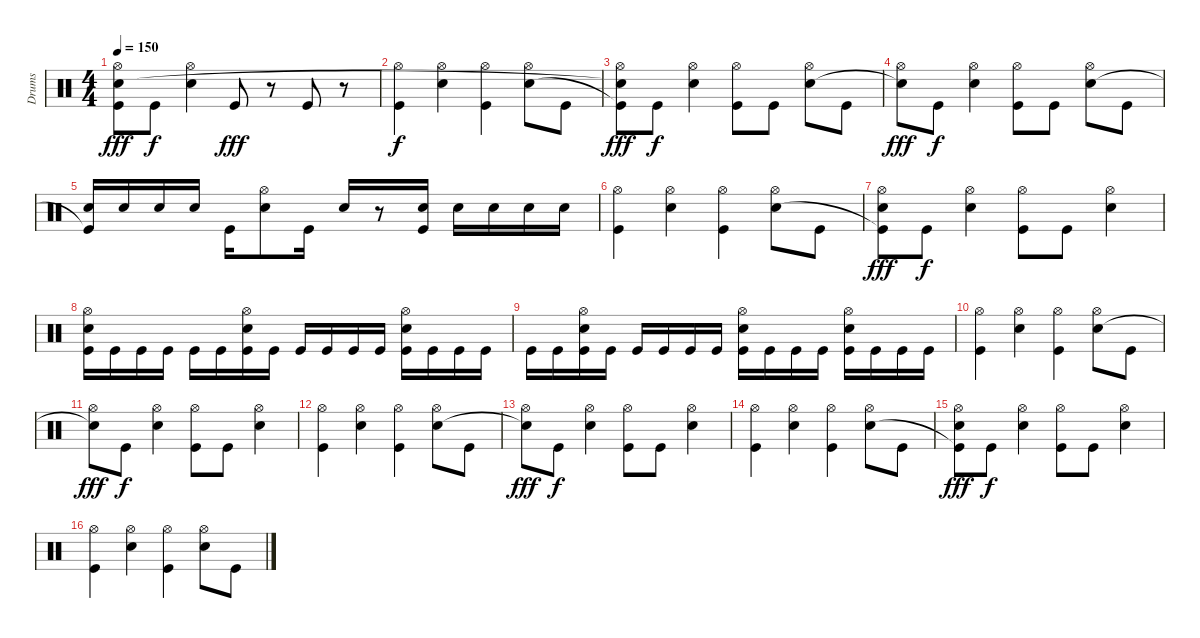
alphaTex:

\track ("Drums" "Drums") {instrument percussion}
\staff {score}
\articulation defaults
\ts (4 4)
\tempo 150
\clef neutral
\ks c
("Hi-Hat (open)" "Kick (hit)"{t} "Snare (hit)"{t}).8{dy fff} "Kick (hit)".8{dy f} ("Hi-Hat (open)" "Snare (hit) 2").4 "Kick (hit)".8{dy fff} r.8 "Kick (hit)".8 r.8 |
("Hi-Hat (open)" "Kick (hit)").4{dy f} ("Hi-Hat (open)" "Snare (hit) 2").4 ("Hi-Hat (open)" "Kick (hit)").4 ("Hi-Hat (open)" "Snare (hit) 2").8 "Kick (hit)".8 |
("Hi-Hat (open)" "Kick (hit)"{t} "Snare (hit)"{t}).8{dy fff} "Kick (hit)".8{dy f} ("Hi-Hat (open)" "Snare (hit) 2").4 ("Hi-Hat (open)" "Kick (hit)").8 "Kick (hit)".8 ("Hi-Hat (open)" "Snare (hit) 2").8 "Kick (hit)".8 |
("Hi-Hat (open)" "Snare (hit)"{t}).8{dy fff} "Kick (hit)".8{dy f} ("Hi-Hat (open)" "Snare (hit) 2").4 ("Hi-Hat (open)" "Kick (hit)").8 "Kick (hit)".8 ("Hi-Hat (open)" "Snare (hit) 2").8 "Kick (hit)".8 |
("Snare (hit) 2" "Kick (hit)"{t}).16 "Snare (hit) 2".16 "Snare (hit) 2".16 "Snare (hit) 2".16 "Kick (hit)".16 ("Hi-Hat (open)" "Snare (hit) 2").8 "Kick (hit)".16 "Snare (hit) 2".16 r.8 ("Snare (hit) 2" "Kick (hit)").16 "Snare (hit) 2".16 "Snare (hit) 2".16 "Snare (hit) 2".16 "Snare (hit) 2".16 |
("Hi-Hat (open)" "Kick (hit)").4 ("Hi-Hat (open)" "Snare (hit) 2").4 ("Hi-Hat (open)" "Kick (hit)").4 ("Hi-Hat (open)" "Snare (hit) 2").8 "Kick (hit)".8 |
("Hi-Hat (open)" "Kick (hit)"{t} "Snare (hit)").8{dy fff} "Kick (hit)".8{dy f} ("Hi-Hat (open)" "Snare (hit) 2").4 ("Hi-Hat (open)" "Kick (hit)").8 "Kick (hit)".8 ("Hi-Hat (open)" "Snare (hit) 2").4 |
("Hi-Hat (open)" "Snare (hit) 2" "Kick (hit)").16 "Kick (hit)".16 "Kick (hit)".16 "Kick (hit)".16 "Kick (hit)".16 "Kick (hit)".16 ("Hi-Hat (open)" "Snare (hit) 2" "Kick (hit)").16 "Kick (hit)".16 "Kick (hit)".16 "Kick (hit)".16 "Kick (hit)".16 "Kick (hit)".16 ("Hi-Hat (open)" "Snare (hit) 2" "Kick (hit)").16 "Kick (hit)".16 "Kick (hit)".16 "Kick (hit)".16 |
"Kick (hit)".16 "Kick (hit)".16 ("Hi-Hat (open)" "Snare (hit) 2" "Kick (hit)").16 "Kick (hit)".16 "Kick (hit)".16 "Kick (hit)".16 "Kick (hit)".16 "Kick (hit)".16 ("Hi-Hat (open)" "Snare (hit) 2" "Kick (hit)").16 "Kick (hit)".16 "Kick (hit)".16 "Kick (hit)".16 ("Hi-Hat (open)" "Snare (hit) 2" "Kick (hit)").16 "Kick (hit)".16 "Kick (hit)".16 "Kick (hit)".16 |
("Hi-Hat (open)" "Kick (hit)").4 ("Hi-Hat (open)" "Snare (hit) 2").4 ("Hi-Hat (open)" "Kick (hit)").4 ("Hi-Hat (open)" "Snare (hit) 2").8 "Kick (hit)".8 |
("Hi-Hat (open)" "Snare (hit)"{t}).8{dy fff} "Kick (hit)".8{dy f} ("Hi-Hat (open)" "Snare (hit) 2").4 ("Hi-Hat (open)" "Kick (hit)").8 "Kick (hit)".8 ("Hi-Hat (open)" "Snare (hit) 2").4 |
("Hi-Hat (open)" "Kick (hit)").4 ("Hi-Hat (open)" "Snare (hit) 2").4 ("Hi-Hat (open)" "Kick (hit)").4 ("Hi-Hat (open)" "Snare (hit) 2").8 "Kick (hit)".8 |
("Hi-Hat (open)" "Snare (hit)"{t}).8{dy fff} "Kick (hit)".8{dy f} ("Hi-Hat (open)" "Snare (hit) 2").4 ("Hi-Hat (open)" "Kick (hit)").8 "Kick (hit)".8 ("Hi-Hat (open)" "Snare (hit) 2").4 |
("Hi-Hat (open)" "Kick (hit)").4 ("Hi-Hat (open)" "Snare (hit) 2").4 ("Hi-Hat (open)" "Kick (hit)").4 ("Hi-Hat (open)" "Snare (hit) 2").8 "Kick (hit)".8 |
("Hi-Hat (open)" "Kick (hit)"{t} "Snare (hit)").8{dy fff} "Kick (hit)".8{dy f} ("Hi-Hat (open)" "Snare (hit) 2").4 ("Hi-Hat (open)" "Kick (hit)").8 "Kick (hit)".8 ("Hi-Hat (open)" "Snare (hit) 2").4 |
("Hi-Hat (open)" "Kick (hit)").4 ("Hi-Hat (open)" "Snare (hit) 2").4 ("Hi-Hat (open)" "Kick (hit)").4 ("Hi-Hat (open)" "Snare (hit) 2").8 "Kick (hit)".8
